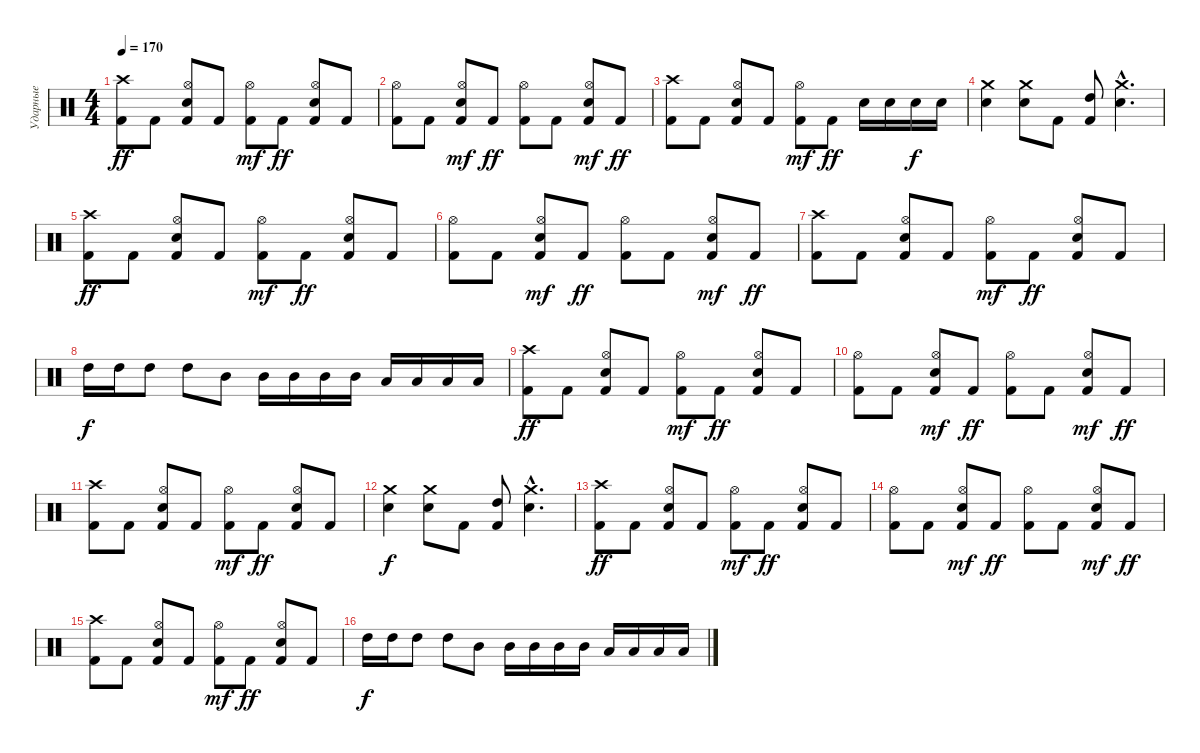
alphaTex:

\track ("Ударные" "Ударные") {instrument percussion}
\staff {score}
\articulation defaults
\ts (4 4)
\tempo 170
\clef neutral
\ks c
("Crash high (hit)" "Kick (hit) 2").8{dy ff} "Kick (hit) 2".8 ("Hi-Hat (open)" "Kick (hit) 2" "Electric Snare (hit)").8 "Kick (hit) 2".8 ("Kick (hit) 2" "Hi-Hat (open)").8{dy mf} "Kick (hit) 2".8{dy ff} ("Kick (hit) 2" "Hi-Hat (open)" "Electric Snare (hit)").8 "Kick (hit) 2".8 |
("Hi-Hat (open)" "Kick (hit) 2").8 "Kick (hit) 2".8 ("Kick (hit) 2" "Electric Snare (hit)" "Hi-Hat (open)").8{dy mf} "Kick (hit) 2".8{dy ff} ("Hi-Hat (open)" "Kick (hit) 2").8 "Kick (hit) 2".8 ("Kick (hit) 2" "Electric Snare (hit)" "Hi-Hat (open)").8{dy mf} "Kick (hit) 2".8{dy ff} |
("Crash high (hit)" "Kick (hit) 2").8 "Kick (hit) 2".8 ("Hi-Hat (open)" "Kick (hit) 2" "Electric Snare (hit)").8 "Kick (hit) 2".8 ("Kick (hit) 2" "Hi-Hat (open)").8{dy mf} "Kick (hit) 2".8{dy ff} "Electric Snare (hit)".16 "Electric Snare (hit)".16 "Electric Snare (hit)".16{dy f} "Electric Snare (hit)".16 |
("Electric Snare (hit)" "Crash medium (hit)").4 ("Electric Snare (hit)" "Crash medium (hit)").8 "Kick (hit) 2".8 ("High Tom (hit)" "Kick (hit) 2").8 ("Electric Snare (hit)"{hac} "Crash medium (hit)"{hac}).4{d} |
("Crash high (hit)" "Kick (hit) 2").8{dy ff} "Kick (hit) 2".8 ("Hi-Hat (open)" "Kick (hit) 2" "Electric Snare (hit)").8 "Kick (hit) 2".8 ("Kick (hit) 2" "Hi-Hat (open)").8{dy mf} "Kick (hit) 2".8{dy ff} ("Kick (hit) 2" "Hi-Hat (open)" "Electric Snare (hit)").8 "Kick (hit) 2".8 |
("Hi-Hat (open)" "Kick (hit) 2").8 "Kick (hit) 2".8 ("Kick (hit) 2" "Electric Snare (hit)" "Hi-Hat (open)").8{dy mf} "Kick (hit) 2".8{dy ff} ("Hi-Hat (open)" "Kick (hit) 2").8 "Kick (hit) 2".8 ("Kick (hit) 2" "Electric Snare (hit)" "Hi-Hat (open)").8{dy mf} "Kick (hit) 2".8{dy ff} |
("Crash high (hit)" "Kick (hit) 2").8 "Kick (hit) 2".8 ("Hi-Hat (open)" "Kick (hit) 2" "Electric Snare (hit)").8 "Kick (hit) 2".8 ("Kick (hit) 2" "Hi-Hat (open)").8{dy mf} "Kick (hit) 2".8{dy ff} ("Kick (hit) 2" "Hi-Hat (open)" "Electric Snare (hit)").8 "Kick (hit) 2".8 |
"High Tom (hit)".16{dy f} "High Tom (hit)".16 "High Tom (hit)".8 "High Tom (hit)".8 "Mid Tom (hit)".8 "Mid Tom (hit)".16 "Mid Tom (hit)".16 "Mid Tom (hit)".16 "Mid Tom (hit)".16 "Low Tom (hit)".16 "Low Tom (hit)".16 "Low Tom (hit)".16 "Low Tom (hit)".16 |
("Crash high (hit)" "Kick (hit) 2").8{dy ff} "Kick (hit) 2".8 ("Hi-Hat (open)" "Kick (hit) 2" "Electric Snare (hit)").8 "Kick (hit) 2".8 ("Kick (hit) 2" "Hi-Hat (open)").8{dy mf} "Kick (hit) 2".8{dy ff} ("Kick (hit) 2" "Hi-Hat (open)" "Electric Snare (hit)").8 "Kick (hit) 2".8 |
("Hi-Hat (open)" "Kick (hit) 2").8 "Kick (hit) 2".8 ("Kick (hit) 2" "Electric Snare (hit)" "Hi-Hat (open)").8{dy mf} "Kick (hit) 2".8{dy ff} ("Hi-Hat (open)" "Kick (hit) 2").8 "Kick (hit) 2".8 ("Kick (hit) 2" "Electric Snare (hit)" "Hi-Hat (open)").8{dy mf} "Kick (hit) 2".8{dy ff} |
("Crash high (hit)" "Kick (hit) 2").8 "Kick (hit) 2".8 ("Hi-Hat (open)" "Kick (hit) 2" "Electric Snare (hit)").8 "Kick (hit) 2".8 ("Kick (hit) 2" "Hi-Hat (open)").8{dy mf} "Kick (hit) 2".8{dy ff} ("Kick (hit) 2" "Hi-Hat (open)" "Electric Snare (hit)").8 "Kick (hit) 2".8 |
("Electric Snare (hit)" "Crash medium (hit)").4{dy f} ("Electric Snare (hit)" "Crash medium (hit)").8 "Kick (hit) 2".8 ("High Tom (hit)" "Kick (hit) 2").8 ("Electric Snare (hit)"{hac} "Crash medium (hit)"{hac}).4{d} |
("Crash high (hit)" "Kick (hit) 2").8{dy ff} "Kick (hit) 2".8 ("Hi-Hat (open)" "Kick (hit) 2" "Electric Snare (hit)").8 "Kick (hit) 2".8 ("Kick (hit) 2" "Hi-Hat (open)").8{dy mf} "Kick (hit) 2".8{dy ff} ("Kick (hit) 2" "Hi-Hat (open)" "Electric Snare (hit)").8 "Kick (hit) 2".8 |
("Hi-Hat (open)" "Kick (hit) 2").8 "Kick (hit) 2".8 ("Kick (hit) 2" "Electric Snare (hit)" "Hi-Hat (open)").8{dy mf} "Kick (hit) 2".8{dy ff} ("Hi-Hat (open)" "Kick (hit) 2").8 "Kick (hit) 2".8 ("Kick (hit) 2" "Electric Snare (hit)" "Hi-Hat (open)").8{dy mf} "Kick (hit) 2".8{dy ff} |
("Crash high (hit)" "Kick (hit) 2").8 "Kick (hit) 2".8 ("Hi-Hat (open)" "Kick (hit) 2" "Electric Snare (hit)").8 "Kick (hit) 2".8 ("Kick (hit) 2" "Hi-Hat (open)").8{dy mf} "Kick (hit) 2".8{dy ff} ("Kick (hit) 2" "Hi-Hat (open)" "Electric Snare (hit)").8 "Kick (hit) 2".8 |
"High Tom (hit)".16{dy f} "High Tom (hit)".16 "High Tom (hit)".8 "High Tom (hit)".8 "Mid Tom (hit)".8 "Mid Tom (hit)".16 "Mid Tom (hit)".16 "Mid Tom (hit)".16 "Mid Tom (hit)".16 "Low Tom (hit)".16 "Low Tom (hit)".16 "Low Tom (hit)".16 "Low Tom (hit)".16
